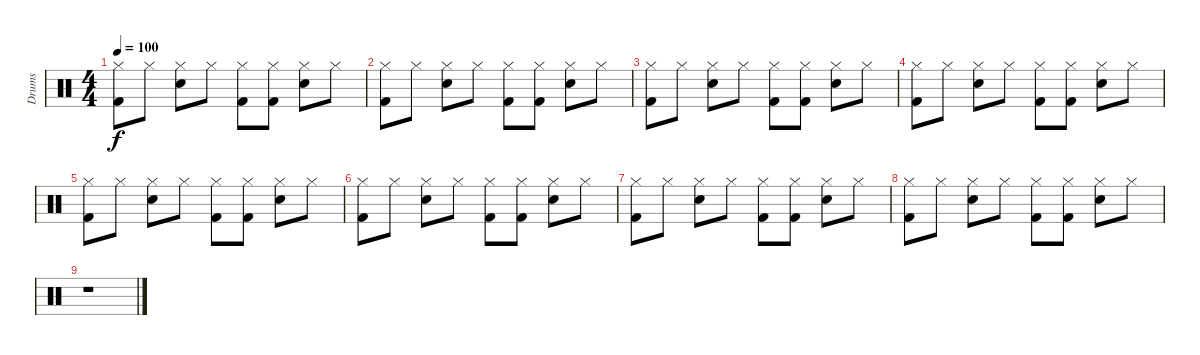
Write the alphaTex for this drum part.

\track ("Drums" "Drums") {instrument percussion}
\staff {score}
\articulation defaults
\ts (4 4)
\tempo 100
\clef neutral
\ks c
("Hi-Hat (closed)" "Kick (hit) 2").8{dy f} "Hi-Hat (closed)".8 ("Hi-Hat (closed)" "Electric Snare (hit)").8 "Hi-Hat (closed)".8 ("Hi-Hat (closed)" "Kick (hit) 2").8 ("Hi-Hat (closed)" "Kick (hit) 2").8 ("Hi-Hat (closed)" "Electric Snare (hit)").8 "Hi-Hat (closed)".8 |
("Hi-Hat (closed)" "Kick (hit) 2").8 "Hi-Hat (closed)".8 ("Hi-Hat (closed)" "Electric Snare (hit)").8 "Hi-Hat (closed)".8 ("Hi-Hat (closed)" "Kick (hit) 2").8 ("Hi-Hat (closed)" "Kick (hit) 2").8 ("Hi-Hat (closed)" "Electric Snare (hit)").8 "Hi-Hat (closed)".8 |
("Hi-Hat (closed)" "Kick (hit) 2").8 "Hi-Hat (closed)".8 ("Hi-Hat (closed)" "Electric Snare (hit)").8 "Hi-Hat (closed)".8 ("Hi-Hat (closed)" "Kick (hit) 2").8 ("Hi-Hat (closed)" "Kick (hit) 2").8 ("Hi-Hat (closed)" "Electric Snare (hit)").8 "Hi-Hat (closed)".8 |
("Hi-Hat (closed)" "Kick (hit) 2").8 "Hi-Hat (closed)".8 ("Hi-Hat (closed)" "Electric Snare (hit)").8 "Hi-Hat (closed)".8 ("Hi-Hat (closed)" "Kick (hit) 2").8 ("Hi-Hat (closed)" "Kick (hit) 2").8 ("Hi-Hat (closed)" "Electric Snare (hit)").8 "Hi-Hat (closed)".8 |
("Hi-Hat (closed)" "Kick (hit) 2").8 "Hi-Hat (closed)".8 ("Hi-Hat (closed)" "Electric Snare (hit)").8 "Hi-Hat (closed)".8 ("Hi-Hat (closed)" "Kick (hit) 2").8 ("Hi-Hat (closed)" "Kick (hit) 2").8 ("Hi-Hat (closed)" "Electric Snare (hit)").8 "Hi-Hat (closed)".8 |
("Hi-Hat (closed)" "Kick (hit) 2").8 "Hi-Hat (closed)".8 ("Hi-Hat (closed)" "Electric Snare (hit)").8 "Hi-Hat (closed)".8 ("Hi-Hat (closed)" "Kick (hit) 2").8 ("Hi-Hat (closed)" "Kick (hit) 2").8 ("Hi-Hat (closed)" "Electric Snare (hit)").8 "Hi-Hat (closed)".8 |
("Hi-Hat (closed)" "Kick (hit) 2").8 "Hi-Hat (closed)".8 ("Hi-Hat (closed)" "Electric Snare (hit)").8 "Hi-Hat (closed)".8 ("Hi-Hat (closed)" "Kick (hit) 2").8 ("Hi-Hat (closed)" "Kick (hit) 2").8 ("Hi-Hat (closed)" "Electric Snare (hit)").8 "Hi-Hat (closed)".8 |
("Hi-Hat (closed)" "Kick (hit) 2").8 "Hi-Hat (closed)".8 ("Hi-Hat (closed)" "Electric Snare (hit)").8 "Hi-Hat (closed)".8 ("Hi-Hat (closed)" "Kick (hit) 2").8 ("Hi-Hat (closed)" "Kick (hit) 2").8 ("Hi-Hat (closed)" "Electric Snare (hit)").8 "Hi-Hat (closed)".8 |
r.1
